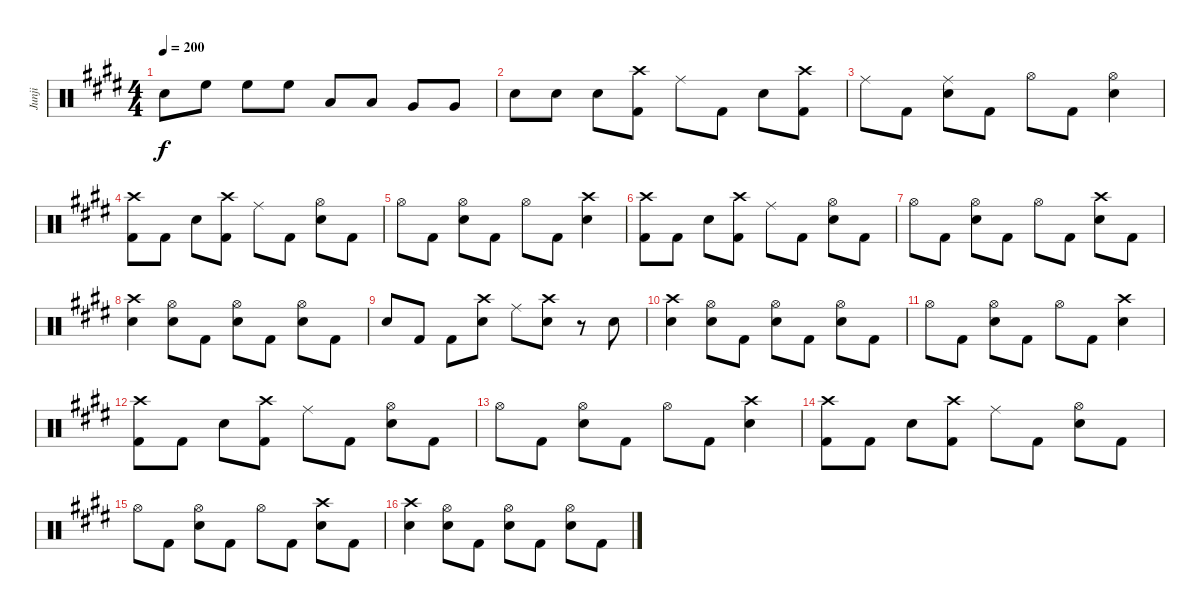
\track ("Junji" "Junji") {instrument percussion}
\staff {score}
\articulation defaults
\ts (4 4)
\tempo 200
\clef neutral
\ks e "Snare (hit) 2".8{dy f} "High Floor Tom (hit)".8 "High Floor Tom (hit)".8 "High Floor Tom (hit)".8 "Low Tom (hit)".8 "Low Tom (hit)".8 "Very Low Tom (hit)".8 "Very Low Tom (hit)".8
|
"Electric Snare (hit)".8 "Electric Snare (hit)".8 "Electric Snare (hit)".8 ("Crash high (hit)" "Kick (hit) 2").8 "Ride (middle)".8 "Kick (hit) 2".8 "Snare (hit) 2".8 ("Crash high (hit)" "Kick (hit) 2").8 |
"Ride (middle)".8 "Kick (hit) 2".8 ("Ride (middle)" "Snare (hit) 2").8 "Kick (hit) 2".8 "Hi-Hat (open)".8 "Kick (hit) 2".8 ("Hi-Hat (open)" "Snare (hit) 2").4 |
("Crash high (hit)" "Kick (hit) 2").8 "Kick (hit) 2".8 "Snare (hit) 2".8 ("Crash high (hit)" "Kick (hit) 2").8 "Ride (middle)".8 "Kick (hit) 2".8 ("Hi-Hat (open)" "Snare (hit) 2").8 "Kick (hit) 2".8 |
"Hi-Hat (open)".8 "Kick (hit) 2".8 ("Hi-Hat (open)" "Snare (hit) 2").8 "Kick (hit) 2".8 "Hi-Hat (open)".8 "Kick (hit) 2".8 ("Crash high (hit)" "Snare (hit) 2").4 |
("Crash high (hit)" "Kick (hit) 2").8 "Kick (hit) 2".8 "Snare (hit) 2".8 ("Crash high (hit)" "Kick (hit) 2").8 "Ride (middle)".8 "Kick (hit) 2".8 ("Hi-Hat (open)" "Snare (hit) 2").8 "Kick (hit) 2".8 |
"Hi-Hat (open)".8 "Kick (hit) 2".8 ("Hi-Hat (open)" "Snare (hit) 2").8 "Kick (hit) 2".8 "Hi-Hat (open)".8 "Kick (hit) 2".8 ("Crash high (hit)" "Snare (hit) 2").8 "Kick (hit) 2".8 |
("Crash high (hit)" "Snare (hit) 2").4 ("Hi-Hat (open)" "Snare (hit) 2").8 "Kick (hit) 2".8 ("Hi-Hat (open)" "Snare (hit) 2").8 "Kick (hit) 2".8 ("Hi-Hat (open)" "Snare (hit) 2").8 "Kick (hit) 2".8 |
"Snare (hit) 2".8 "Kick (hit) 2".8 "Kick (hit) 2".8 ("Crash high (hit)" "Snare (hit) 2").8 "Ride (middle)".8 ("Crash high (hit)" "Snare (hit) 2").8 r.8 "Snare (hit) 2".8 |
("Crash high (hit)" "Snare (hit) 2").4 ("Hi-Hat (open)" "Snare (hit) 2").8 "Kick (hit) 2".8 ("Hi-Hat (open)" "Snare (hit) 2").8 "Kick (hit) 2".8 ("Hi-Hat (open)" "Snare (hit) 2").8 "Kick (hit) 2".8 |
"Hi-Hat (open)".8 "Kick (hit) 2".8 ("Hi-Hat (open)" "Snare (hit) 2").8 "Kick (hit) 2".8 "Hi-Hat (open)".8 "Kick (hit) 2".8 ("Crash high (hit)" "Snare (hit) 2").4 |
("Crash high (hit)" "Kick (hit) 2").8 "Kick (hit) 2".8 "Snare (hit) 2".8 ("Crash high (hit)" "Kick (hit) 2").8 "Ride (middle)".8 "Kick (hit) 2".8 ("Hi-Hat (open)" "Snare (hit) 2").8 "Kick (hit) 2".8 |
"Hi-Hat (open)".8 "Kick (hit) 2".8 ("Hi-Hat (open)" "Snare (hit) 2").8 "Kick (hit) 2".8 "Hi-Hat (open)".8 "Kick (hit) 2".8 ("Crash high (hit)" "Snare (hit) 2").4 |
("Crash high (hit)" "Kick (hit) 2").8 "Kick (hit) 2".8 "Snare (hit) 2".8 ("Crash high (hit)" "Kick (hit) 2").8 "Ride (middle)".8 "Kick (hit) 2".8 ("Hi-Hat (open)" "Snare (hit) 2").8 "Kick (hit) 2".8 |
"Hi-Hat (open)".8 "Kick (hit) 2".8 ("Hi-Hat (open)" "Snare (hit) 2").8 "Kick (hit) 2".8 "Hi-Hat (open)".8 "Kick (hit) 2".8 ("Crash high (hit)" "Snare (hit) 2").8 "Kick (hit) 2".8 |
("Crash high (hit)" "Snare (hit) 2").4 ("Hi-Hat (open)" "Snare (hit) 2").8 "Kick (hit) 2".8 ("Hi-Hat (open)" "Snare (hit) 2").8 "Kick (hit) 2".8 ("Hi-Hat (open)" "Snare (hit) 2").8 "Kick (hit) 2".8
